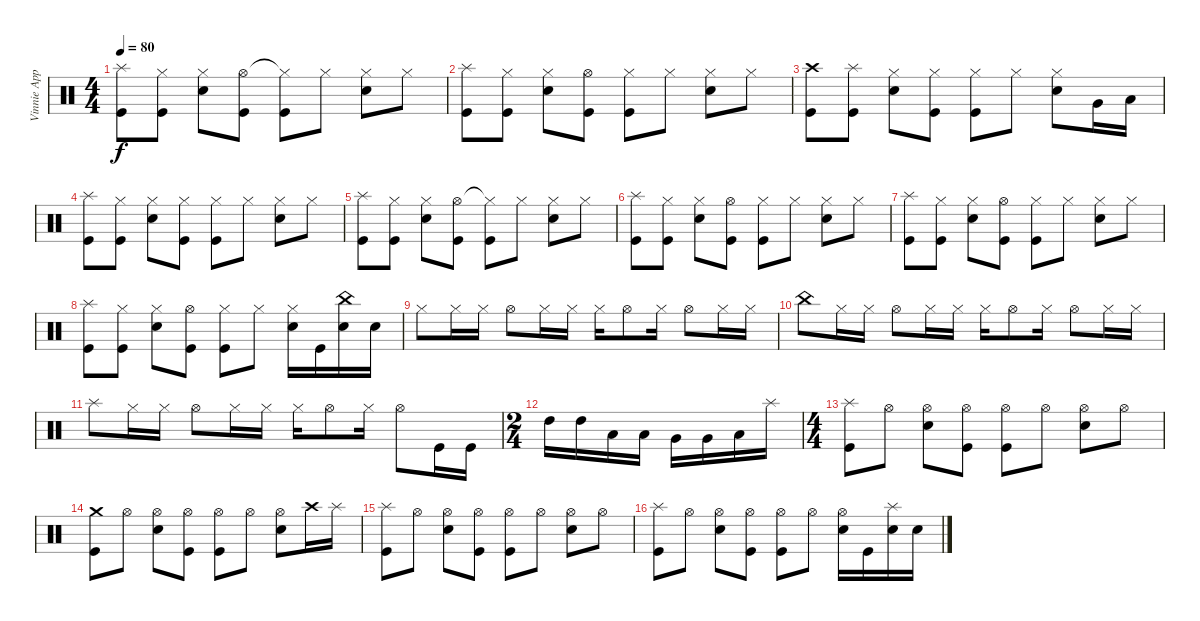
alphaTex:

\track ("Vinnie Appice (drums)" "Vinnie App") {instrument percussion}
\staff {score}
\articulation defaults
\ts (4 4)
\tempo 80
\clef neutral
\ks c
("Splash (hit)" "Kick (hit)").8{dy f} ("Hi-Hat (closed)" "Kick (hit)").8 ("Hi-Hat (closed)" "Snare (hit) 2").8 ("Hi-Hat (open)" "Kick (hit)").8 ("Hi-Hat (closed)"{t} "Kick (hit)").8 "Hi-Hat (closed)".8 ("Hi-Hat (closed)" "Snare (hit) 2").8 "Hi-Hat (closed)".8 |
("Splash (hit)" "Kick (hit)").8 ("Hi-Hat (closed)" "Kick (hit)").8 ("Hi-Hat (closed)" "Snare (hit) 2").8 ("Hi-Hat (open)" "Kick (hit)").8 ("Hi-Hat (closed)" "Kick (hit)").8 "Hi-Hat (closed)".8 ("Hi-Hat (closed)" "Snare (hit) 2").8 "Hi-Hat (closed)".8 |
("Crash high (hit)" "Kick (hit)").8 ("Splash (hit)" "Kick (hit)").8 ("Hi-Hat (closed)" "Snare (hit) 2").8 ("Hi-Hat (closed)" "Kick (hit)").8 ("Hi-Hat (closed)" "Kick (hit)").8 "Hi-Hat (closed)".8 ("Hi-Hat (closed)" "Snare (hit) 2").8 "Very Low Tom (hit)".16 "Low Floor Tom (hit)".16 |
("Splash (hit)" "Kick (hit)").8 ("Hi-Hat (closed)" "Kick (hit)").8 ("Hi-Hat (closed)" "Snare (hit) 2").8 ("Hi-Hat (closed)" "Kick (hit)").8 ("Hi-Hat (closed)" "Kick (hit)").8 "Hi-Hat (closed)".8 ("Hi-Hat (closed)" "Snare (hit) 2").8 "Hi-Hat (closed)".8 |
("Splash (hit)" "Kick (hit)").8 ("Hi-Hat (closed)" "Kick (hit)").8 ("Hi-Hat (closed)" "Snare (hit) 2").8 ("Hi-Hat (open)" "Kick (hit)").8 ("Hi-Hat (closed)"{t} "Kick (hit)").8 "Hi-Hat (closed)".8 ("Hi-Hat (closed)" "Snare (hit) 2").8 "Hi-Hat (closed)".8 |
("Splash (hit)" "Kick (hit)").8 ("Hi-Hat (closed)" "Kick (hit)").8 ("Hi-Hat (closed)" "Snare (hit) 2").8 ("Hi-Hat (open)" "Kick (hit)").8 ("Hi-Hat (closed)" "Kick (hit)").8 "Hi-Hat (closed)".8 ("Hi-Hat (closed)" "Snare (hit) 2").8 "Hi-Hat (closed)".8 |
("Splash (hit)" "Kick (hit)").8 ("Hi-Hat (closed)" "Kick (hit)").8 ("Hi-Hat (closed)" "Snare (hit) 2").8 ("Hi-Hat (open)" "Kick (hit)").8 ("Hi-Hat (closed)" "Kick (hit)").8 "Hi-Hat (closed)".8 ("Hi-Hat (closed)" "Snare (hit) 2").8 "Hi-Hat (closed)".8 |
("Splash (hit)" "Kick (hit)").8 ("Hi-Hat (closed)" "Kick (hit)").8 ("Hi-Hat (closed)" "Snare (hit) 2").8 ("Hi-Hat (open)" "Kick (hit)").8 ("Hi-Hat (closed)" "Kick (hit)").8 "Hi-Hat (closed)".8 ("Hi-Hat (closed)" "Snare (hit) 2").16 "Kick (hit)".16 ("China (hit)" "Snare (hit) 2").16 "Snare (hit) 2".16 |
"Hi-Hat (closed)".8 "Hi-Hat (closed)".16 "Hi-Hat (closed)".16 "Hi-Hat (open)".8 "Hi-Hat (closed)".16 "Hi-Hat (closed)".16 "Hi-Hat (closed)".16 "Hi-Hat (open)".8 "Hi-Hat (closed)".16 "Hi-Hat (open)".8 "Hi-Hat (closed)".16 "Hi-Hat (closed)".16 |
"China (hit)".8 "Hi-Hat (closed)".16 "Hi-Hat (closed)".16 "Hi-Hat (open)".8 "Hi-Hat (closed)".16 "Hi-Hat (closed)".16 "Hi-Hat (closed)".16 "Hi-Hat (open)".8 "Hi-Hat (closed)".16 "Hi-Hat (open)".8 "Hi-Hat (closed)".16 "Hi-Hat (closed)".16 |
"Splash (hit)".8 "Hi-Hat (closed)".16 "Hi-Hat (closed)".16 "Hi-Hat (open)".8 "Hi-Hat (closed)".16 "Hi-Hat (closed)".16 "Hi-Hat (closed)".16 "Hi-Hat (open)".8 "Hi-Hat (closed)".16 "Hi-Hat (open)".8 "Kick (hit)".16 "Kick (hit)".16 |
\ts (2 4)
"High Tom (hit)".16 "High Tom (hit)".16 "Low Tom (hit)".16 "Low Tom (hit)".16 "Very Low Tom (hit)".16 "Very Low Tom (hit)".16 "Low Floor Tom (hit)".16 "Splash (hit)".16 |
\ts (4 4)
("Splash (hit)" "Kick (hit)").8 "Hi-Hat (open)".8 ("Hi-Hat (open)" "Snare (hit) 2").8 ("Hi-Hat (open)" "Kick (hit)").8 ("Hi-Hat (open)" "Kick (hit)").8 "Hi-Hat (open)".8 ("Hi-Hat (open)" "Snare (hit) 2").8 "Hi-Hat (open)".8 |
("Crash medium (hit)" "Kick (hit)").8 "Hi-Hat (open)".8 ("Hi-Hat (open)" "Snare (hit) 2").8 ("Hi-Hat (open)" "Kick (hit)").8 ("Hi-Hat (open)" "Kick (hit)").8 "Hi-Hat (open)".8 ("Hi-Hat (open)" "Snare (hit) 2").8 "Crash high (hit)".16 "Splash (hit)".16 |
("Splash (hit)" "Kick (hit)").8 "Hi-Hat (open)".8 ("Hi-Hat (open)" "Snare (hit) 2").8 ("Hi-Hat (open)" "Kick (hit)").8 ("Hi-Hat (open)" "Kick (hit)").8 "Hi-Hat (open)".8 ("Hi-Hat (open)" "Snare (hit) 2").8 "Hi-Hat (open)".8 |
("Splash (hit)" "Kick (hit)").8 "Hi-Hat (open)".8 ("Hi-Hat (open)" "Snare (hit) 2").8 ("Hi-Hat (open)" "Kick (hit)").8 ("Hi-Hat (open)" "Kick (hit)").8 "Hi-Hat (open)".8 ("Hi-Hat (open)" "Snare (hit) 2").16 "Kick (hit)".16 ("Splash (hit)" "Snare (hit) 2").16 "Snare (hit) 2".16
